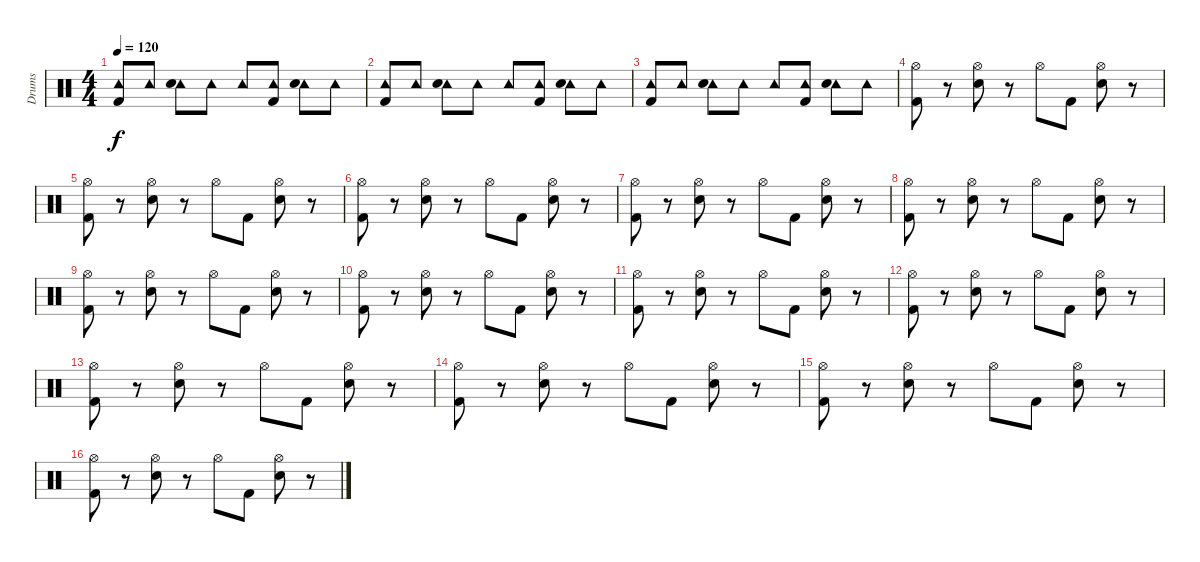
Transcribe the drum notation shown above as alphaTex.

\track ("Drums" "Drums") {instrument percussion}
\staff {score}
\articulation defaults
\ts (4 4)
\tempo 120
\clef neutral
\ks c
("Tambourine (hit)" "Kick (hit) 2").8{dy f} "Tambourine (hit)".8 ("Tambourine (hit)" "Hand Clap (hit)").8 "Tambourine (hit)".8 "Tambourine (hit)".8 ("Tambourine (hit)" "Kick (hit) 2").8 ("Tambourine (hit)" "Hand Clap (hit)").8 "Tambourine (hit)".8 |
("Tambourine (hit)" "Kick (hit) 2").8 "Tambourine (hit)".8 ("Tambourine (hit)" "Hand Clap (hit)").8 "Tambourine (hit)".8 "Tambourine (hit)".8 ("Tambourine (hit)" "Kick (hit) 2").8 ("Tambourine (hit)" "Hand Clap (hit)").8 "Tambourine (hit)".8 |
("Tambourine (hit)" "Kick (hit) 2").8 "Tambourine (hit)".8 ("Tambourine (hit)" "Hand Clap (hit)").8 "Tambourine (hit)".8 "Tambourine (hit)".8 ("Tambourine (hit)" "Kick (hit) 2").8 ("Tambourine (hit)" "Hand Clap (hit)").8 "Tambourine (hit)".8 |
("Hi-Hat (open)" "Kick (hit) 2").8 r.8 ("Hi-Hat (open)" "Hand Clap (hit)").8 r.8 "Hi-Hat (open)".8 "Kick (hit) 2".8 ("Hi-Hat (open)" "Hand Clap (hit)").8 r.8 |
("Hi-Hat (open)" "Kick (hit) 2").8 r.8 ("Hi-Hat (open)" "Hand Clap (hit)").8 r.8 "Hi-Hat (open)".8 "Kick (hit) 2".8 ("Hi-Hat (open)" "Hand Clap (hit)").8 r.8 |
("Hi-Hat (open)" "Kick (hit) 2").8 r.8 ("Hi-Hat (open)" "Hand Clap (hit)").8 r.8 "Hi-Hat (open)".8 "Kick (hit) 2".8 ("Hi-Hat (open)" "Hand Clap (hit)").8 r.8 |
("Hi-Hat (open)" "Kick (hit) 2").8 r.8 ("Hi-Hat (open)" "Hand Clap (hit)").8 r.8 "Hi-Hat (open)".8 "Kick (hit) 2".8 ("Hi-Hat (open)" "Hand Clap (hit)").8 r.8 |
("Hi-Hat (open)" "Kick (hit) 2").8 r.8 ("Hi-Hat (open)" "Hand Clap (hit)").8 r.8 "Hi-Hat (open)".8 "Kick (hit) 2".8 ("Hi-Hat (open)" "Hand Clap (hit)").8 r.8 |
("Hi-Hat (open)" "Kick (hit) 2").8 r.8 ("Hi-Hat (open)" "Hand Clap (hit)").8 r.8 "Hi-Hat (open)".8 "Kick (hit) 2".8 ("Hi-Hat (open)" "Hand Clap (hit)").8 r.8 |
("Hi-Hat (open)" "Kick (hit) 2").8 r.8 ("Hi-Hat (open)" "Hand Clap (hit)").8 r.8 "Hi-Hat (open)".8 "Kick (hit) 2".8 ("Hi-Hat (open)" "Hand Clap (hit)").8 r.8 |
("Hi-Hat (open)" "Kick (hit) 2").8 r.8 ("Hi-Hat (open)" "Hand Clap (hit)").8 r.8 "Hi-Hat (open)".8 "Kick (hit) 2".8 ("Hi-Hat (open)" "Hand Clap (hit)").8 r.8 |
("Hi-Hat (open)" "Kick (hit) 2").8 r.8 ("Hi-Hat (open)" "Hand Clap (hit)").8 r.8 "Hi-Hat (open)".8 "Kick (hit) 2".8 ("Hi-Hat (open)" "Hand Clap (hit)").8 r.8 |
("Hi-Hat (open)" "Kick (hit) 2").8 r.8 ("Hi-Hat (open)" "Hand Clap (hit)").8 r.8 "Hi-Hat (open)".8 "Kick (hit) 2".8 ("Hi-Hat (open)" "Hand Clap (hit)").8 r.8 |
("Hi-Hat (open)" "Kick (hit) 2").8 r.8 ("Hi-Hat (open)" "Hand Clap (hit)").8 r.8 "Hi-Hat (open)".8 "Kick (hit) 2".8 ("Hi-Hat (open)" "Hand Clap (hit)").8 r.8 |
("Hi-Hat (open)" "Kick (hit) 2").8 r.8 ("Hi-Hat (open)" "Hand Clap (hit)").8 r.8 "Hi-Hat (open)".8 "Kick (hit) 2".8 ("Hi-Hat (open)" "Hand Clap (hit)").8 r.8 |
("Hi-Hat (open)" "Kick (hit) 2").8 r.8 ("Hi-Hat (open)" "Hand Clap (hit)").8 r.8 "Hi-Hat (open)".8 "Kick (hit) 2".8 ("Hi-Hat (open)" "Hand Clap (hit)").8 r.8
